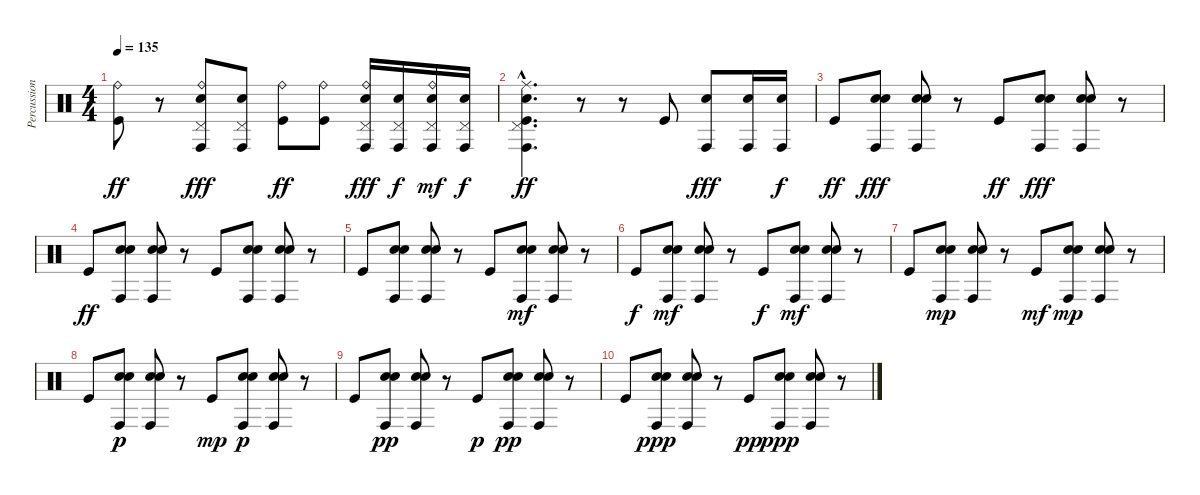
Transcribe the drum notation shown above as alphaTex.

\track ("Percussion" "Percussion") {instrument percussion}
\staff {score}
\articulation defaults
\ts (4 4)
\tempo 135
\clef neutral
\ks c
("Ride (bell)" "Kick (hit)").8{dy ff} r.8 ("Ride (bell)" "Pedal Hi-Hat (hit)" "Conga high (hit)" "Electric Snare (hit)").8{dy fff} ("Pedal Hi-Hat (hit)" "Conga high (hit)" "Electric Snare (hit)").8 ("Ride (bell)" "Kick (hit)").8{dy ff} ("Ride (bell)" "Kick (hit)").8 ("Ride (bell)" "Pedal Hi-Hat (hit)" "Conga high (hit)" "Electric Snare (hit)").16{dy fff} ("Pedal Hi-Hat (hit)" "Conga high (hit)" "Electric Snare (hit)").16{dy f} ("Ride (bell)" "Pedal Hi-Hat (hit)" "Conga high (hit)" "Electric Snare (hit)").16{dy mf} ("Pedal Hi-Hat (hit)" "Conga high (hit)" "Electric Snare (hit)").16{dy f} |
("Ride (middle)"{hac} "Pedal Hi-Hat (hit)"{hac} "Conga high (hit)"{hac} "Electric Snare (hit)"{hac} "Kick (hit)"{hac}).4{d dy ff} r.8 r.8 "Kick (hit)".8 ("Conga high (hit)" "Electric Snare (hit)").8{dy fff} ("Conga high (hit)" "Electric Snare (hit)").16 ("Conga high (hit)" "Electric Snare (hit)").16{dy f} |
"Kick (hit)".8{dy ff} ("Hand Clap (hit)" "Conga high (hit)" "Electric Snare (hit)").8{dy fff} ("Hand Clap (hit)" "Conga high (hit)" "Electric Snare (hit)").8 r.8 "Kick (hit)".8{dy ff} ("Hand Clap (hit)" "Conga high (hit)" "Electric Snare (hit)").8{dy fff} ("Hand Clap (hit)" "Conga high (hit)" "Electric Snare (hit)").8 r.8 |
"Kick (hit)".8{dy ff} ("Hand Clap (hit)" "Conga high (hit)" "Electric Snare (hit)").8 ("Hand Clap (hit)" "Conga high (hit)" "Electric Snare (hit)").8 r.8 "Kick (hit)".8 ("Hand Clap (hit)" "Conga high (hit)" "Electric Snare (hit)").8 ("Hand Clap (hit)" "Conga high (hit)" "Electric Snare (hit)").8 r.8 |
"Kick (hit)".8 ("Hand Clap (hit)" "Conga high (hit)" "Electric Snare (hit)").8 ("Hand Clap (hit)" "Conga high (hit)" "Electric Snare (hit)").8 r.8 "Kick (hit)".8 ("Hand Clap (hit)" "Conga high (hit)" "Electric Snare (hit)").8{dy mf} ("Hand Clap (hit)" "Conga high (hit)" "Electric Snare (hit)").8 r.8 |
"Kick (hit)".8{dy f} ("Hand Clap (hit)" "Conga high (hit)" "Electric Snare (hit)").8{dy mf} ("Hand Clap (hit)" "Conga high (hit)" "Electric Snare (hit)").8 r.8 "Kick (hit)".8{dy f} ("Hand Clap (hit)" "Conga high (hit)" "Electric Snare (hit)").8{dy mf} ("Hand Clap (hit)" "Conga high (hit)" "Electric Snare (hit)").8 r.8 |
"Kick (hit)".8 ("Hand Clap (hit)" "Conga high (hit)" "Electric Snare (hit)").8{dy mp} ("Hand Clap (hit)" "Conga high (hit)" "Electric Snare (hit)").8 r.8 "Kick (hit)".8{dy mf} ("Hand Clap (hit)" "Conga high (hit)" "Electric Snare (hit)").8{dy mp} ("Hand Clap (hit)" "Conga high (hit)" "Electric Snare (hit)").8 r.8 |
"Kick (hit)".8 ("Hand Clap (hit)" "Conga high (hit)" "Electric Snare (hit)").8{dy p} ("Hand Clap (hit)" "Conga high (hit)" "Electric Snare (hit)").8 r.8 "Kick (hit)".8{dy mp} ("Hand Clap (hit)" "Conga high (hit)" "Electric Snare (hit)").8{dy p} ("Hand Clap (hit)" "Conga high (hit)" "Electric Snare (hit)").8 r.8 |
"Kick (hit)".8 ("Hand Clap (hit)" "Conga high (hit)" "Electric Snare (hit)").8{dy pp} ("Hand Clap (hit)" "Conga high (hit)" "Electric Snare (hit)").8 r.8 "Kick (hit)".8{dy p} ("Hand Clap (hit)" "Conga high (hit)" "Electric Snare (hit)").8{dy pp} ("Hand Clap (hit)" "Conga high (hit)" "Electric Snare (hit)").8 r.8 |
"Kick (hit)".8 ("Hand Clap (hit)" "Conga high (hit)" "Electric Snare (hit)").8{dy ppp} ("Hand Clap (hit)" "Conga high (hit)" "Electric Snare (hit)").8 r.8 "Kick (hit)".8{dy pp} ("Hand Clap (hit)" "Conga high (hit)" "Electric Snare (hit)").8{dy ppp} ("Hand Clap (hit)" "Conga high (hit)" "Electric Snare (hit)").8 r.8
